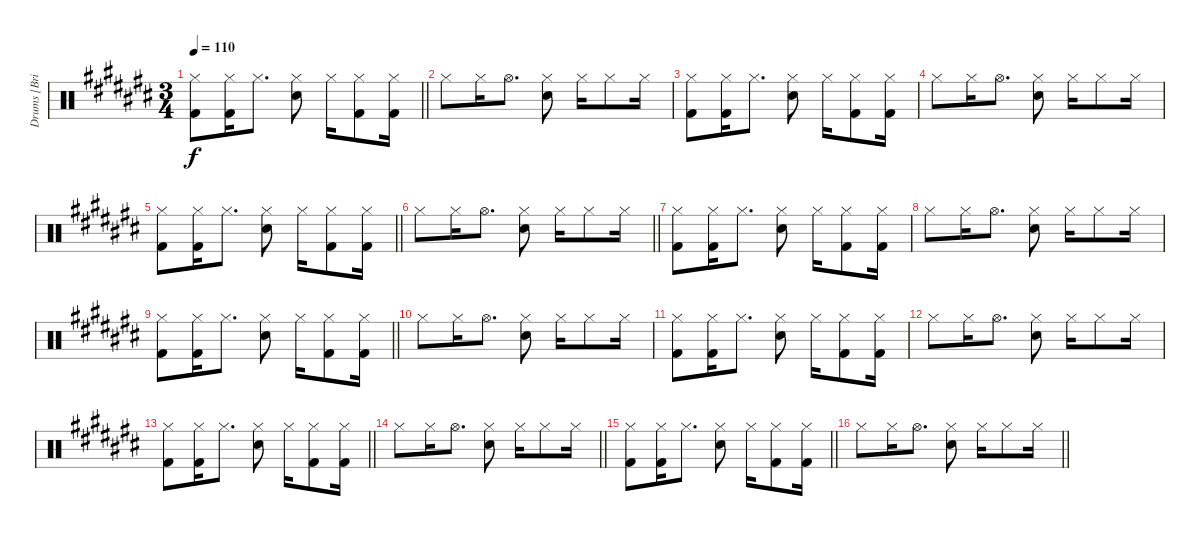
\track ("Drums [Brian \"Brain\" Mantia]" "Drums [Bri") {instrument percussion}
\staff {score}
\articulation defaults
\ts (3 4)
\section ("" "")
\tempo 110
\clef neutral
\barLineRight lightlight
\ks c#
("Hi-Hat (closed)" "Kick (hit) 2").8{dy f} ("Hi-Hat (closed)" "Kick (hit) 2").16 "Hi-Hat (closed)".8{d} ("Hi-Hat (closed)" "Electric Snare (hit)").8 "Hi-Hat (closed)".16 ("Hi-Hat (closed)" "Kick (hit) 2").8 ("Hi-Hat (closed)" "Kick (hit) 2").16 |
"Hi-Hat (closed)".8 "Hi-Hat (closed)".16 "Hi-Hat (open)".8{d} ("Hi-Hat (closed)" "Electric Snare (hit)").8 "Hi-Hat (closed)".16 "Hi-Hat (closed)".8 "Hi-Hat (closed)".16 |
("Hi-Hat (closed)" "Kick (hit) 2").8 ("Hi-Hat (closed)" "Kick (hit) 2").16 "Hi-Hat (closed)".8{d} ("Hi-Hat (closed)" "Electric Snare (hit)").8 "Hi-Hat (closed)".16 ("Hi-Hat (closed)" "Kick (hit) 2").8 ("Hi-Hat (closed)" "Kick (hit) 2").16 |
"Hi-Hat (closed)".8 "Hi-Hat (closed)".16 "Hi-Hat (open)".8{d} ("Hi-Hat (closed)" "Electric Snare (hit)").8 "Hi-Hat (closed)".16 "Hi-Hat (closed)".8 "Hi-Hat (closed)".16 |
\barLineRight lightlight
("Hi-Hat (closed)" "Kick (hit) 2").8 ("Hi-Hat (closed)" "Kick (hit) 2").16 "Hi-Hat (closed)".8{d} ("Hi-Hat (closed)" "Electric Snare (hit)").8 "Hi-Hat (closed)".16 ("Hi-Hat (closed)" "Kick (hit) 2").8 ("Hi-Hat (closed)" "Kick (hit) 2").16 |
\barLineRight lightlight "Hi-Hat (closed)".8 "Hi-Hat (closed)".16 "Hi-Hat (open)".8{d}
("Hi-Hat (closed)" "Electric Snare (hit)").8 "Hi-Hat (closed)".16 "Hi-Hat (closed)".8 "Hi-Hat (closed)".16 |
\section ("" "")
("Hi-Hat (closed)" "Kick (hit) 2").8 ("Hi-Hat (closed)" "Kick (hit) 2").16 "Hi-Hat (closed)".8{d} ("Hi-Hat (closed)" "Electric Snare (hit)").8 "Hi-Hat (closed)".16 ("Hi-Hat (closed)" "Kick (hit) 2").8 ("Hi-Hat (closed)" "Kick (hit) 2").16 |
"Hi-Hat (closed)".8 "Hi-Hat (closed)".16 "Hi-Hat (open)".8{d} ("Hi-Hat (closed)" "Electric Snare (hit)").8 "Hi-Hat (closed)".16 "Hi-Hat (closed)".8 "Hi-Hat (closed)".16 |
\barLineRight lightlight
("Hi-Hat (closed)" "Kick (hit) 2").8 ("Hi-Hat (closed)" "Kick (hit) 2").16 "Hi-Hat (closed)".8{d} ("Hi-Hat (closed)" "Electric Snare (hit)").8 "Hi-Hat (closed)".16 ("Hi-Hat (closed)" "Kick (hit) 2").8 ("Hi-Hat (closed)" "Kick (hit) 2").16 |
"Hi-Hat (closed)".8 "Hi-Hat (closed)".16 "Hi-Hat (open)".8{d} ("Hi-Hat (closed)" "Electric Snare (hit)").8 "Hi-Hat (closed)".16 "Hi-Hat (closed)".8 "Hi-Hat (closed)".16 |
("Hi-Hat (closed)" "Kick (hit) 2").8 ("Hi-Hat (closed)" "Kick (hit) 2").16 "Hi-Hat (closed)".8{d} ("Hi-Hat (closed)" "Electric Snare (hit)").8 "Hi-Hat (closed)".16 ("Hi-Hat (closed)" "Kick (hit) 2").8 ("Hi-Hat (closed)" "Kick (hit) 2").16 |
"Hi-Hat (closed)".8 "Hi-Hat (closed)".16 "Hi-Hat (open)".8{d} ("Hi-Hat (closed)" "Electric Snare (hit)").8 "Hi-Hat (closed)".16 "Hi-Hat (closed)".8 "Hi-Hat (closed)".16 |
\barLineRight lightlight
("Hi-Hat (closed)" "Kick (hit) 2").8 ("Hi-Hat (closed)" "Kick (hit) 2").16 "Hi-Hat (closed)".8{d} ("Hi-Hat (closed)" "Electric Snare (hit)").8 "Hi-Hat (closed)".16 ("Hi-Hat (closed)" "Kick (hit) 2").8 ("Hi-Hat (closed)" "Kick (hit) 2").16 |
\barLineRight lightlight "Hi-Hat (closed)".8 "Hi-Hat (closed)".16 "Hi-Hat (open)".8{d}
("Hi-Hat (closed)" "Electric Snare (hit)").8 "Hi-Hat (closed)".16 "Hi-Hat (closed)".8 "Hi-Hat (closed)".16 |
\section ("" "")
\barLineRight lightlight
("Hi-Hat (closed)" "Kick (hit) 2").8 ("Hi-Hat (closed)" "Kick (hit) 2").16 "Hi-Hat (closed)".8{d} ("Hi-Hat (closed)" "Electric Snare (hit)").8 "Hi-Hat (closed)".16 ("Hi-Hat (closed)" "Kick (hit) 2").8 ("Hi-Hat (closed)" "Kick (hit) 2").16 |
\barLineRight lightlight "Hi-Hat (closed)".8 "Hi-Hat (closed)".16 "Hi-Hat (open)".8{d}
("Hi-Hat (closed)" "Electric Snare (hit)").8 "Hi-Hat (closed)".16 "Hi-Hat (closed)".8 "Hi-Hat (closed)".16
